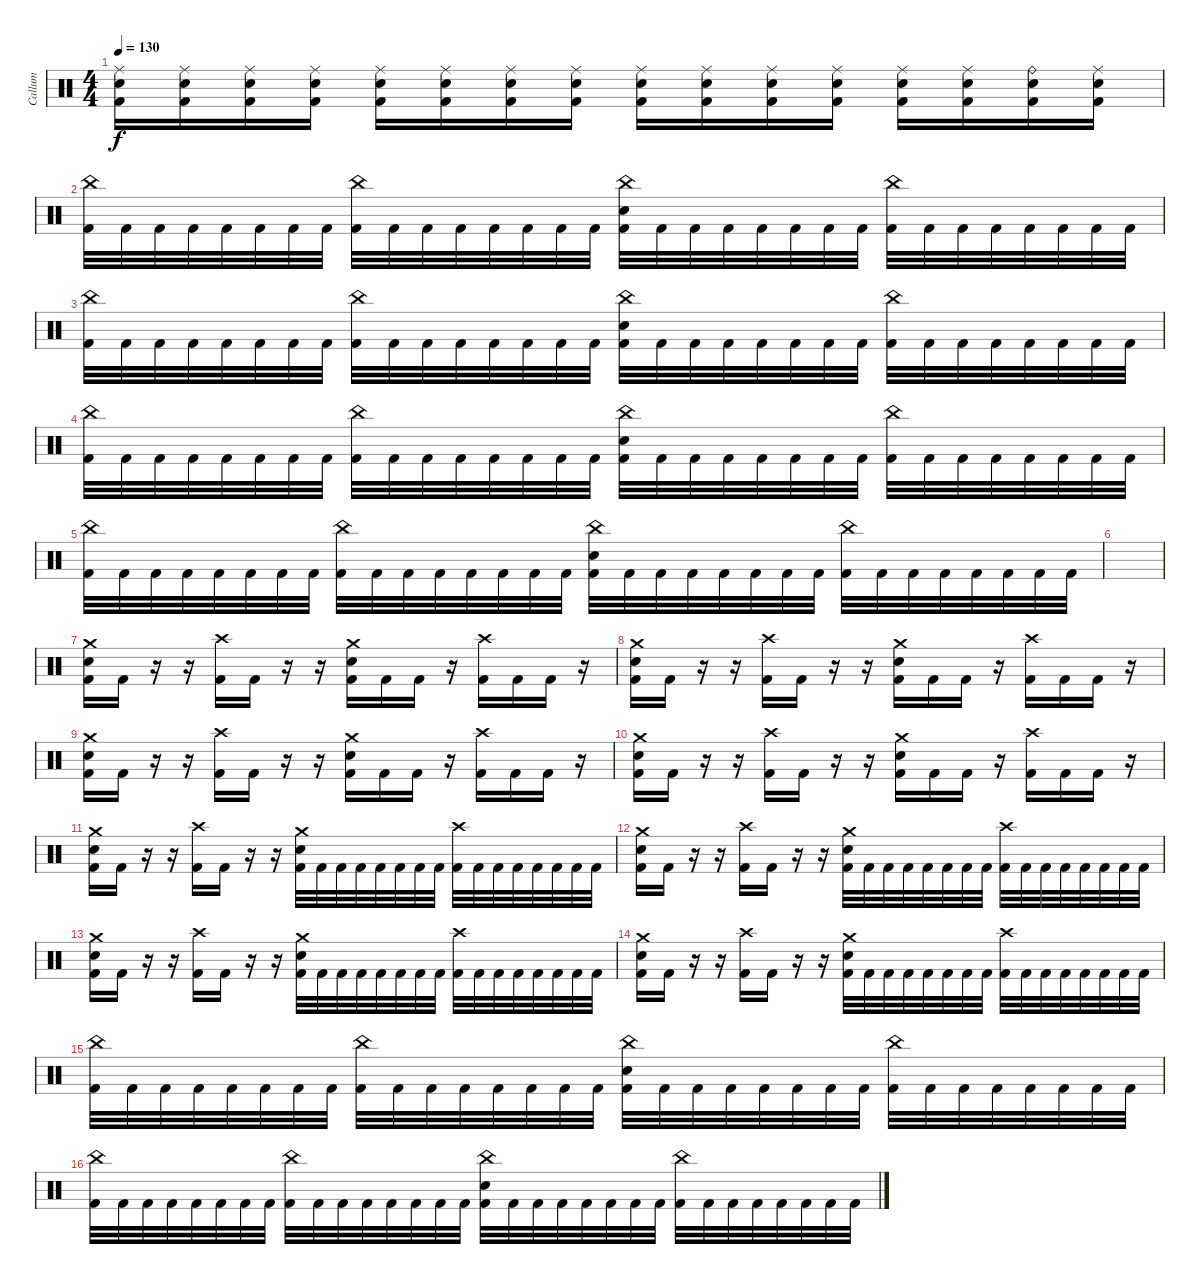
\track ("Callum" "Callum") {instrument percussion}
\staff {score}
\articulation defaults
\ts (4 4)
\tempo 130
\clef neutral
\ks c
("Ride (middle)" "Electric Snare (hit)" "Kick (hit) 2").16{dy f} ("Ride (middle)" "Electric Snare (hit)" "Kick (hit) 2").16 ("Ride (middle)" "Electric Snare (hit)" "Kick (hit) 2").16 ("Ride (middle)" "Electric Snare (hit)" "Kick (hit) 2").16 ("Ride (middle)" "Electric Snare (hit)" "Kick (hit) 2").16 ("Ride (middle)" "Electric Snare (hit)" "Kick (hit) 2").16 ("Ride (middle)" "Electric Snare (hit)" "Kick (hit) 2").16 ("Ride (middle)" "Electric Snare (hit)" "Kick (hit) 2").16 ("Ride (middle)" "Electric Snare (hit)" "Kick (hit) 2").16 ("Ride (middle)" "Electric Snare (hit)" "Kick (hit) 2").16 ("Ride (middle)" "Electric Snare (hit)" "Kick (hit) 2").16 ("Ride (middle)" "Electric Snare (hit)" "Kick (hit) 2").16 ("Ride (middle)" "Electric Snare (hit)" "Kick (hit) 2").16 ("Ride (middle)" "Electric Snare (hit)" "Kick (hit) 2").16 ("Ride (bell)" "Electric Snare (hit)" "Kick (hit) 2").16 ("Ride (middle)" "Electric Snare (hit)" "Kick (hit) 2").16 |
("China (hit)" "Kick (hit) 2").32 "Kick (hit) 2".32 "Kick (hit) 2".32 "Kick (hit) 2".32 "Kick (hit) 2".32 "Kick (hit) 2".32 "Kick (hit) 2".32 "Kick (hit) 2".32 ("China (hit)" "Kick (hit) 2").32 "Kick (hit) 2".32 "Kick (hit) 2".32 "Kick (hit) 2".32 "Kick (hit) 2".32 "Kick (hit) 2".32 "Kick (hit) 2".32 "Kick (hit) 2".32 ("China (hit)" "Electric Snare (hit)" "Kick (hit) 2").32 "Kick (hit) 2".32 "Kick (hit) 2".32 "Kick (hit) 2".32 "Kick (hit) 2".32 "Kick (hit) 2".32 "Kick (hit) 2".32 "Kick (hit) 2".32 ("China (hit)" "Kick (hit) 2").32 "Kick (hit) 2".32 "Kick (hit) 2".32 "Kick (hit) 2".32 "Kick (hit) 2".32 "Kick (hit) 2".32 "Kick (hit) 2".32 "Kick (hit) 2".32 |
("China (hit)" "Kick (hit) 2").32 "Kick (hit) 2".32 "Kick (hit) 2".32 "Kick (hit) 2".32 "Kick (hit) 2".32 "Kick (hit) 2".32 "Kick (hit) 2".32 "Kick (hit) 2".32 ("China (hit)" "Kick (hit) 2").32 "Kick (hit) 2".32 "Kick (hit) 2".32 "Kick (hit) 2".32 "Kick (hit) 2".32 "Kick (hit) 2".32 "Kick (hit) 2".32 "Kick (hit) 2".32 ("China (hit)" "Electric Snare (hit)" "Kick (hit) 2").32 "Kick (hit) 2".32 "Kick (hit) 2".32 "Kick (hit) 2".32 "Kick (hit) 2".32 "Kick (hit) 2".32 "Kick (hit) 2".32 "Kick (hit) 2".32 ("China (hit)" "Kick (hit) 2").32 "Kick (hit) 2".32 "Kick (hit) 2".32 "Kick (hit) 2".32 "Kick (hit) 2".32 "Kick (hit) 2".32 "Kick (hit) 2".32 "Kick (hit) 2".32 |
("China (hit)" "Kick (hit) 2").32 "Kick (hit) 2".32 "Kick (hit) 2".32 "Kick (hit) 2".32 "Kick (hit) 2".32 "Kick (hit) 2".32 "Kick (hit) 2".32 "Kick (hit) 2".32 ("China (hit)" "Kick (hit) 2").32 "Kick (hit) 2".32 "Kick (hit) 2".32 "Kick (hit) 2".32 "Kick (hit) 2".32 "Kick (hit) 2".32 "Kick (hit) 2".32 "Kick (hit) 2".32 ("China (hit)" "Electric Snare (hit)" "Kick (hit) 2").32 "Kick (hit) 2".32 "Kick (hit) 2".32 "Kick (hit) 2".32 "Kick (hit) 2".32 "Kick (hit) 2".32 "Kick (hit) 2".32 "Kick (hit) 2".32 ("China (hit)" "Kick (hit) 2").32 "Kick (hit) 2".32 "Kick (hit) 2".32 "Kick (hit) 2".32 "Kick (hit) 2".32 "Kick (hit) 2".32 "Kick (hit) 2".32 "Kick (hit) 2".32 |
("China (hit)" "Kick (hit) 2").32 "Kick (hit) 2".32 "Kick (hit) 2".32 "Kick (hit) 2".32 "Kick (hit) 2".32 "Kick (hit) 2".32 "Kick (hit) 2".32 "Kick (hit) 2".32 ("China (hit)" "Kick (hit) 2").32 "Kick (hit) 2".32 "Kick (hit) 2".32 "Kick (hit) 2".32 "Kick (hit) 2".32 "Kick (hit) 2".32 "Kick (hit) 2".32 "Kick (hit) 2".32 ("China (hit)" "Electric Snare (hit)" "Kick (hit) 2").32 "Kick (hit) 2".32 "Kick (hit) 2".32 "Kick (hit) 2".32 "Kick (hit) 2".32 "Kick (hit) 2".32 "Kick (hit) 2".32 "Kick (hit) 2".32 ("China (hit)" "Kick (hit) 2").32 "Kick (hit) 2".32 "Kick (hit) 2".32 "Kick (hit) 2".32 "Kick (hit) 2".32 "Kick (hit) 2".32 "Kick (hit) 2".32 "Kick (hit) 2".32 |
|
("Crash medium (hit)" "Electric Snare (hit)" "Kick (hit) 2").16 "Kick (hit) 2".16 r.16 r.16 ("Crash high (hit)" "Kick (hit) 2").16 "Kick (hit) 2".16 r.16 r.16 ("Crash medium (hit)" "Electric Snare (hit)" "Kick (hit) 2").16 "Kick (hit) 2".16 "Kick (hit) 2".16 r.16 ("Crash high (hit)" "Kick (hit) 2").16 "Kick (hit) 2".16 "Kick (hit) 2".16 r.16 |
("Crash medium (hit)" "Electric Snare (hit)" "Kick (hit) 2").16 "Kick (hit) 2".16 r.16 r.16 ("Crash high (hit)" "Kick (hit) 2").16 "Kick (hit) 2".16 r.16 r.16 ("Crash medium (hit)" "Electric Snare (hit)" "Kick (hit) 2").16 "Kick (hit) 2".16 "Kick (hit) 2".16 r.16 ("Crash high (hit)" "Kick (hit) 2").16 "Kick (hit) 2".16 "Kick (hit) 2".16 r.16 |
("Crash medium (hit)" "Electric Snare (hit)" "Kick (hit) 2").16 "Kick (hit) 2".16 r.16 r.16 ("Crash high (hit)" "Kick (hit) 2").16 "Kick (hit) 2".16 r.16 r.16 ("Crash medium (hit)" "Electric Snare (hit)" "Kick (hit) 2").16 "Kick (hit) 2".16 "Kick (hit) 2".16 r.16 ("Crash high (hit)" "Kick (hit) 2").16 "Kick (hit) 2".16 "Kick (hit) 2".16 r.16 |
("Crash medium (hit)" "Electric Snare (hit)" "Kick (hit) 2").16 "Kick (hit) 2".16 r.16 r.16 ("Crash high (hit)" "Kick (hit) 2").16 "Kick (hit) 2".16 r.16 r.16 ("Crash medium (hit)" "Electric Snare (hit)" "Kick (hit) 2").16 "Kick (hit) 2".16 "Kick (hit) 2".16 r.16 ("Crash high (hit)" "Kick (hit) 2").16 "Kick (hit) 2".16 "Kick (hit) 2".16 r.16 |
("Crash medium (hit)" "Electric Snare (hit)" "Kick (hit) 2").16 "Kick (hit) 2".16 r.16 r.16 ("Crash high (hit)" "Kick (hit) 2").16 "Kick (hit) 2".16 r.16 r.16 ("Crash medium (hit)" "Electric Snare (hit)" "Kick (hit) 2").32 "Kick (hit) 2".32 "Kick (hit) 2".32 "Kick (hit) 2".32 "Kick (hit) 2".32 "Kick (hit) 2".32 "Kick (hit) 2".32 "Kick (hit) 2".32 ("Crash high (hit)" "Kick (hit) 2").32 "Kick (hit) 2".32 "Kick (hit) 2".32 "Kick (hit) 2".32 "Kick (hit) 2".32 "Kick (hit) 2".32 "Kick (hit) 2".32 "Kick (hit) 2".32 |
("Crash medium (hit)" "Electric Snare (hit)" "Kick (hit) 2").16 "Kick (hit) 2".16 r.16 r.16 ("Crash high (hit)" "Kick (hit) 2").16 "Kick (hit) 2".16 r.16 r.16 ("Crash medium (hit)" "Electric Snare (hit)" "Kick (hit) 2").32 "Kick (hit) 2".32 "Kick (hit) 2".32 "Kick (hit) 2".32 "Kick (hit) 2".32 "Kick (hit) 2".32 "Kick (hit) 2".32 "Kick (hit) 2".32 ("Crash high (hit)" "Kick (hit) 2").32 "Kick (hit) 2".32 "Kick (hit) 2".32 "Kick (hit) 2".32 "Kick (hit) 2".32 "Kick (hit) 2".32 "Kick (hit) 2".32 "Kick (hit) 2".32 |
("Crash medium (hit)" "Electric Snare (hit)" "Kick (hit) 2").16 "Kick (hit) 2".16 r.16 r.16 ("Crash high (hit)" "Kick (hit) 2").16 "Kick (hit) 2".16 r.16 r.16 ("Crash medium (hit)" "Electric Snare (hit)" "Kick (hit) 2").32 "Kick (hit) 2".32 "Kick (hit) 2".32 "Kick (hit) 2".32 "Kick (hit) 2".32 "Kick (hit) 2".32 "Kick (hit) 2".32 "Kick (hit) 2".32 ("Crash high (hit)" "Kick (hit) 2").32 "Kick (hit) 2".32 "Kick (hit) 2".32 "Kick (hit) 2".32 "Kick (hit) 2".32 "Kick (hit) 2".32 "Kick (hit) 2".32 "Kick (hit) 2".32 |
("Crash medium (hit)" "Electric Snare (hit)" "Kick (hit) 2").16 "Kick (hit) 2".16 r.16 r.16 ("Crash high (hit)" "Kick (hit) 2").16 "Kick (hit) 2".16 r.16 r.16 ("Crash medium (hit)" "Electric Snare (hit)" "Kick (hit) 2").32 "Kick (hit) 2".32 "Kick (hit) 2".32 "Kick (hit) 2".32 "Kick (hit) 2".32 "Kick (hit) 2".32 "Kick (hit) 2".32 "Kick (hit) 2".32 ("Crash high (hit)" "Kick (hit) 2").32 "Kick (hit) 2".32 "Kick (hit) 2".32 "Kick (hit) 2".32 "Kick (hit) 2".32 "Kick (hit) 2".32 "Kick (hit) 2".32 "Kick (hit) 2".32 |
("China (hit)" "Kick (hit) 2").32 "Kick (hit) 2".32 "Kick (hit) 2".32 "Kick (hit) 2".32 "Kick (hit) 2".32 "Kick (hit) 2".32 "Kick (hit) 2".32 "Kick (hit) 2".32 ("China (hit)" "Kick (hit) 2").32 "Kick (hit) 2".32 "Kick (hit) 2".32 "Kick (hit) 2".32 "Kick (hit) 2".32 "Kick (hit) 2".32 "Kick (hit) 2".32 "Kick (hit) 2".32 ("China (hit)" "Electric Snare (hit)" "Kick (hit) 2").32 "Kick (hit) 2".32 "Kick (hit) 2".32 "Kick (hit) 2".32 "Kick (hit) 2".32 "Kick (hit) 2".32 "Kick (hit) 2".32 "Kick (hit) 2".32 ("China (hit)" "Kick (hit) 2").32 "Kick (hit) 2".32 "Kick (hit) 2".32 "Kick (hit) 2".32 "Kick (hit) 2".32 "Kick (hit) 2".32 "Kick (hit) 2".32 "Kick (hit) 2".32 |
("China (hit)" "Kick (hit) 2").32 "Kick (hit) 2".32 "Kick (hit) 2".32 "Kick (hit) 2".32 "Kick (hit) 2".32 "Kick (hit) 2".32 "Kick (hit) 2".32 "Kick (hit) 2".32 ("China (hit)" "Kick (hit) 2").32 "Kick (hit) 2".32 "Kick (hit) 2".32 "Kick (hit) 2".32 "Kick (hit) 2".32 "Kick (hit) 2".32 "Kick (hit) 2".32 "Kick (hit) 2".32 ("China (hit)" "Electric Snare (hit)" "Kick (hit) 2").32 "Kick (hit) 2".32 "Kick (hit) 2".32 "Kick (hit) 2".32 "Kick (hit) 2".32 "Kick (hit) 2".32 "Kick (hit) 2".32 "Kick (hit) 2".32 ("China (hit)" "Kick (hit) 2").32 "Kick (hit) 2".32 "Kick (hit) 2".32 "Kick (hit) 2".32 "Kick (hit) 2".32 "Kick (hit) 2".32 "Kick (hit) 2".32 "Kick (hit) 2".32
